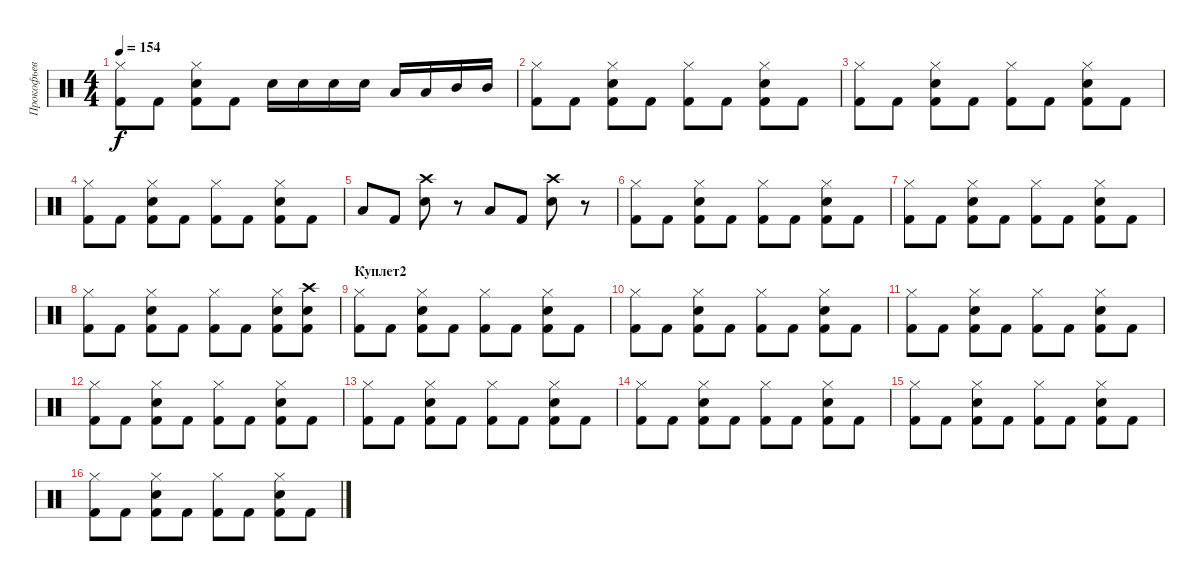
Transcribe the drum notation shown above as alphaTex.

\track ("Прокофьев" "Прокофьев") {instrument percussion}
\staff {score}
\articulation defaults
\ts (4 4)
\tempo 154
\clef neutral
\ks c
("Hi-Hat (closed)" "Kick (hit) 2").8{dy f} "Kick (hit) 2".8 ("Hi-Hat (closed)" "Snare (hit) 2" "Kick (hit) 2").8 "Kick (hit) 2".8 "Snare (hit) 2".16 "Snare (hit) 2".16 "Snare (hit) 2".16 "Snare (hit) 2".16 "Low Tom (hit)".16 "Low Tom (hit)".16 "Mid Tom (hit)".16 "Mid Tom (hit)".16 |
("Hi-Hat (closed)" "Kick (hit) 2").8 "Kick (hit) 2".8 ("Hi-Hat (closed)" "Snare (hit) 2" "Kick (hit) 2").8 "Kick (hit) 2".8 ("Hi-Hat (closed)" "Kick (hit) 2").8 "Kick (hit) 2".8 ("Hi-Hat (closed)" "Snare (hit) 2" "Kick (hit) 2").8 "Kick (hit) 2".8 |
("Hi-Hat (closed)" "Kick (hit) 2").8 "Kick (hit) 2".8 ("Hi-Hat (closed)" "Snare (hit) 2" "Kick (hit) 2").8 "Kick (hit) 2".8 ("Hi-Hat (closed)" "Kick (hit) 2").8 "Kick (hit) 2".8 ("Hi-Hat (closed)" "Snare (hit) 2" "Kick (hit) 2").8 "Kick (hit) 2".8 |
("Hi-Hat (closed)" "Kick (hit) 2").8 "Kick (hit) 2".8 ("Hi-Hat (closed)" "Snare (hit) 2" "Kick (hit) 2").8 "Kick (hit) 2".8 ("Hi-Hat (closed)" "Kick (hit) 2").8 "Kick (hit) 2".8 ("Hi-Hat (closed)" "Snare (hit) 2" "Kick (hit) 2").8 "Kick (hit) 2".8 |
"Low Tom (hit)".8 "Kick (hit) 2".8 ("Crash high (hit)" "Electric Snare (hit)").8 r.8 "Low Tom (hit)".8 "Kick (hit) 2".8 ("Crash high (hit)" "Electric Snare (hit)").8 r.8 |
("Hi-Hat (closed)" "Kick (hit) 2").8 "Kick (hit) 2".8 ("Hi-Hat (closed)" "Snare (hit) 2" "Kick (hit) 2").8 "Kick (hit) 2".8 ("Hi-Hat (closed)" "Kick (hit) 2").8 "Kick (hit) 2".8 ("Hi-Hat (closed)" "Snare (hit) 2" "Kick (hit) 2").8 "Kick (hit) 2".8 |
("Hi-Hat (closed)" "Kick (hit) 2").8 "Kick (hit) 2".8 ("Hi-Hat (closed)" "Snare (hit) 2" "Kick (hit) 2").8 "Kick (hit) 2".8 ("Hi-Hat (closed)" "Kick (hit) 2").8 "Kick (hit) 2".8 ("Hi-Hat (closed)" "Snare (hit) 2" "Kick (hit) 2").8 "Kick (hit) 2".8 |
("Hi-Hat (closed)" "Kick (hit) 2").8 "Kick (hit) 2".8 ("Hi-Hat (closed)" "Snare (hit) 2" "Kick (hit) 2").8 "Kick (hit) 2".8 ("Hi-Hat (closed)" "Kick (hit) 2").8 "Kick (hit) 2".8 ("Hi-Hat (closed)" "Snare (hit) 2" "Kick (hit) 2").8 ("Crash high (hit)" "Snare (hit) 2" "Kick (hit) 2").8 |
\section ("" "Куплет2")
("Hi-Hat (closed)" "Kick (hit) 2").8 "Kick (hit) 2".8 ("Hi-Hat (closed)" "Snare (hit) 2" "Kick (hit) 2").8 "Kick (hit) 2".8 ("Hi-Hat (closed)" "Kick (hit) 2").8 "Kick (hit) 2".8 ("Hi-Hat (closed)" "Snare (hit) 2" "Kick (hit) 2").8 "Kick (hit) 2".8 |
("Hi-Hat (closed)" "Kick (hit) 2").8 "Kick (hit) 2".8 ("Hi-Hat (closed)" "Snare (hit) 2" "Kick (hit) 2").8 "Kick (hit) 2".8 ("Hi-Hat (closed)" "Kick (hit) 2").8 "Kick (hit) 2".8 ("Hi-Hat (closed)" "Snare (hit) 2" "Kick (hit) 2").8 "Kick (hit) 2".8 |
("Hi-Hat (closed)" "Kick (hit) 2").8 "Kick (hit) 2".8 ("Hi-Hat (closed)" "Snare (hit) 2" "Kick (hit) 2").8 "Kick (hit) 2".8 ("Hi-Hat (closed)" "Kick (hit) 2").8 "Kick (hit) 2".8 ("Hi-Hat (closed)" "Snare (hit) 2" "Kick (hit) 2").8 "Kick (hit) 2".8 |
("Hi-Hat (closed)" "Kick (hit) 2").8 "Kick (hit) 2".8 ("Hi-Hat (closed)" "Snare (hit) 2" "Kick (hit) 2").8 "Kick (hit) 2".8 ("Hi-Hat (closed)" "Kick (hit) 2").8 "Kick (hit) 2".8 ("Hi-Hat (closed)" "Snare (hit) 2" "Kick (hit) 2").8 "Kick (hit) 2".8 |
("Hi-Hat (closed)" "Kick (hit) 2").8 "Kick (hit) 2".8 ("Hi-Hat (closed)" "Snare (hit) 2" "Kick (hit) 2").8 "Kick (hit) 2".8 ("Hi-Hat (closed)" "Kick (hit) 2").8 "Kick (hit) 2".8 ("Hi-Hat (closed)" "Snare (hit) 2" "Kick (hit) 2").8 "Kick (hit) 2".8 |
("Hi-Hat (closed)" "Kick (hit) 2").8 "Kick (hit) 2".8 ("Hi-Hat (closed)" "Snare (hit) 2" "Kick (hit) 2").8 "Kick (hit) 2".8 ("Hi-Hat (closed)" "Kick (hit) 2").8 "Kick (hit) 2".8 ("Hi-Hat (closed)" "Snare (hit) 2" "Kick (hit) 2").8 "Kick (hit) 2".8 |
("Hi-Hat (closed)" "Kick (hit) 2").8 "Kick (hit) 2".8 ("Hi-Hat (closed)" "Snare (hit) 2" "Kick (hit) 2").8 "Kick (hit) 2".8 ("Hi-Hat (closed)" "Kick (hit) 2").8 "Kick (hit) 2".8 ("Hi-Hat (closed)" "Snare (hit) 2" "Kick (hit) 2").8 "Kick (hit) 2".8 |
("Hi-Hat (closed)" "Kick (hit) 2").8 "Kick (hit) 2".8 ("Hi-Hat (closed)" "Snare (hit) 2" "Kick (hit) 2").8 "Kick (hit) 2".8 ("Hi-Hat (closed)" "Kick (hit) 2").8 "Kick (hit) 2".8 ("Hi-Hat (closed)" "Snare (hit) 2" "Kick (hit) 2").8 "Kick (hit) 2".8
